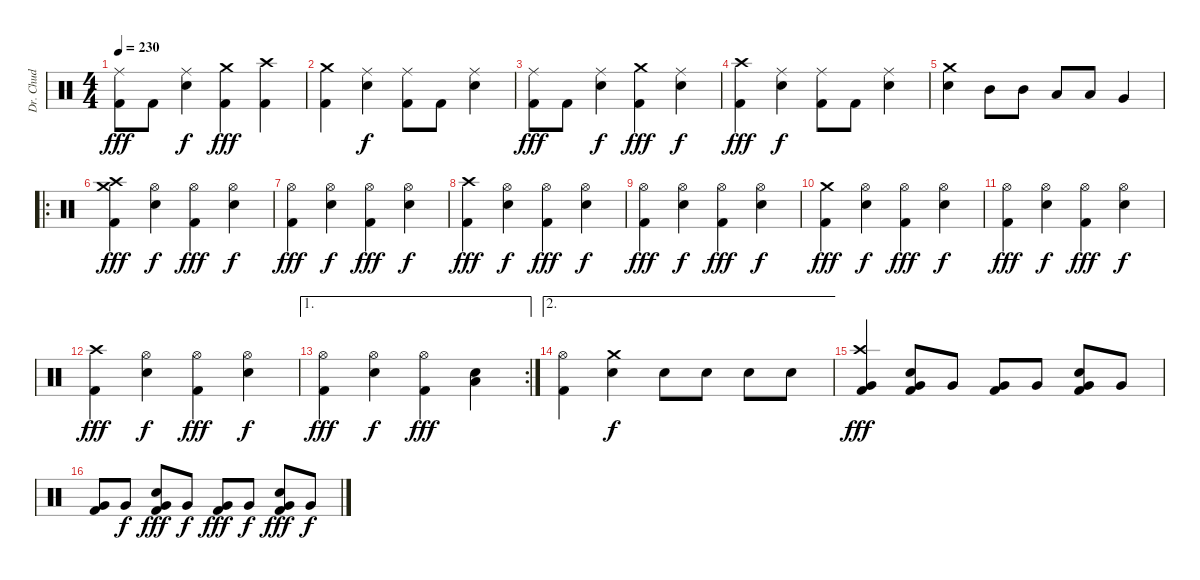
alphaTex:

\track ("Dr. Chud" "Dr. Chud") {instrument percussion}
\staff {score}
\articulation defaults
\ts (4 4)
\tempo 230
\clef neutral
\ks c
("Ride (middle)" "Kick (hit) 2").8{dy fff} "Kick (hit) 2".8 ("Ride (middle)" "Snare (hit) 2").4{dy f} ("Crash medium (hit)" "Kick (hit) 2").4{dy fff} ("Crash high (hit)" "Kick (hit) 2").4 |
("Crash medium (hit)" "Kick (hit) 2").4 ("Ride (middle)" "Snare (hit) 2").4{dy f} ("Ride (middle)" "Kick (hit) 2").8 "Kick (hit) 2".8 ("Ride (middle)" "Snare (hit) 2").4 |
("Ride (middle)" "Kick (hit) 2").8{dy fff} "Kick (hit) 2".8 ("Ride (middle)" "Snare (hit) 2").4{dy f} ("Crash medium (hit)" "Kick (hit) 2").4{dy fff} ("Ride (middle)" "Snare (hit) 2").4{dy f} |
("Crash high (hit)" "Kick (hit) 2").4{dy fff} ("Ride (middle)" "Snare (hit) 2").4{dy f} ("Ride (middle)" "Kick (hit) 2").8 "Kick (hit) 2".8 ("Ride (middle)" "Snare (hit) 2").4 |
("Crash medium (hit)" "Snare (hit) 2").4 "Mid Tom (hit)".8 "Mid Tom (hit)".8 "Low Tom (hit)".8 "Low Tom (hit)".8 "Very Low Tom (hit)".4 |
\ro
("Crash high (hit)" "Crash medium (hit)" "Kick (hit) 2").4{dy fff} ("Hi-Hat (open)" "Snare (hit) 2").4{dy f} ("Hi-Hat (open)" "Kick (hit) 2").4{dy fff} ("Hi-Hat (open)" "Snare (hit) 2").4{dy f} |
("Hi-Hat (open)" "Kick (hit) 2").4{dy fff} ("Hi-Hat (open)" "Snare (hit) 2").4{dy f} ("Hi-Hat (open)" "Kick (hit) 2").4{dy fff} ("Hi-Hat (open)" "Snare (hit) 2").4{dy f} |
("Crash high (hit)" "Kick (hit) 2").4{dy fff} ("Hi-Hat (open)" "Snare (hit) 2").4{dy f} ("Hi-Hat (open)" "Kick (hit) 2").4{dy fff} ("Hi-Hat (open)" "Snare (hit) 2").4{dy f} |
("Hi-Hat (open)" "Kick (hit) 2").4{dy fff} ("Hi-Hat (open)" "Snare (hit) 2").4{dy f} ("Hi-Hat (open)" "Kick (hit) 2").4{dy fff} ("Hi-Hat (open)" "Snare (hit) 2").4{dy f} |
("Crash medium (hit)" "Kick (hit) 2").4{dy fff} ("Hi-Hat (open)" "Snare (hit) 2").4{dy f} ("Hi-Hat (open)" "Kick (hit) 2").4{dy fff} ("Hi-Hat (open)" "Snare (hit) 2").4{dy f} |
("Hi-Hat (open)" "Kick (hit) 2").4{dy fff} ("Hi-Hat (open)" "Snare (hit) 2").4{dy f} ("Hi-Hat (open)" "Kick (hit) 2").4{dy fff} ("Hi-Hat (open)" "Snare (hit) 2").4{dy f} |
("Crash high (hit)" "Kick (hit) 2").4{dy fff} ("Hi-Hat (open)" "Snare (hit) 2").4{dy f} ("Hi-Hat (open)" "Kick (hit) 2").4{dy fff} ("Hi-Hat (open)" "Snare (hit) 2").4{dy f} |
\ae 1
\rc 2
("Hi-Hat (open)" "Kick (hit) 2").4{dy fff} ("Hi-Hat (open)" "Snare (hit) 2").4{dy f} ("Hi-Hat (open)" "Kick (hit) 2").4{dy fff} ("Low Tom (hit)" "Snare (hit) 2").4 |
\ae 2
("Hi-Hat (open)" "Kick (hit) 2").4 ("Crash medium (hit)" "Snare (hit) 2").4{dy f} "Snare (hit) 2".8 "Snare (hit) 2".8 "Snare (hit) 2".8 "Snare (hit) 2".8 |
("Crash high (hit)" "Very Low Tom (hit)" "Kick (hit) 2").4{dy fff} ("Snare (hit) 2" "Very Low Tom (hit)" "Kick (hit) 2").8 "Very Low Tom (hit)".8 ("Very Low Tom (hit)" "Kick (hit) 2").8 "Very Low Tom (hit)".8 ("Snare (hit) 2" "Very Low Tom (hit)" "Kick (hit) 2").8 "Very Low Tom (hit)".8 |
("Very Low Tom (hit)" "Kick (hit) 2").8 "Very Low Tom (hit)".8{dy f} ("Snare (hit) 2" "Very Low Tom (hit)" "Kick (hit) 2").8{dy fff} "Very Low Tom (hit)".8{dy f} ("Very Low Tom (hit)" "Kick (hit) 2").8{dy fff} "Very Low Tom (hit)".8{dy f} ("Snare (hit) 2" "Very Low Tom (hit)" "Kick (hit) 2").8{dy fff} "Very Low Tom (hit)".8{dy f}
